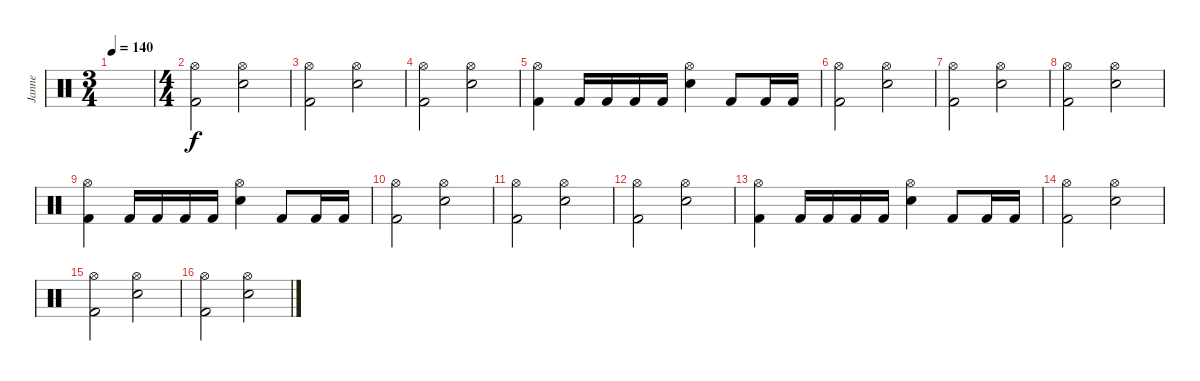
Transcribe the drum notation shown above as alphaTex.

\track ("Janne" "Janne") {instrument percussion}
\staff {score}
\articulation defaults
\ts (3 4)
\tempo 140
\clef neutral
\ks c
|
\ts (4 4)
("Hi-Hat (open)" "Kick (hit) 2").2 ("Hi-Hat (open)" "Electric Snare (hit)").2 |
("Hi-Hat (open)" "Kick (hit) 2").2 ("Hi-Hat (open)" "Electric Snare (hit)").2 |
("Hi-Hat (open)" "Kick (hit) 2").2 ("Hi-Hat (open)" "Electric Snare (hit)").2 |
("Hi-Hat (open)" "Kick (hit) 2").4 "Kick (hit) 2".16 "Kick (hit) 2".16 "Kick (hit) 2".16 "Kick (hit) 2".16 ("Hi-Hat (open)" "Electric Snare (hit)").4 "Kick (hit) 2".8 "Kick (hit) 2".16 "Kick (hit) 2".16 |
("Hi-Hat (open)" "Kick (hit) 2").2 ("Hi-Hat (open)" "Electric Snare (hit)").2 |
("Hi-Hat (open)" "Kick (hit) 2").2 ("Hi-Hat (open)" "Electric Snare (hit)").2 |
("Hi-Hat (open)" "Kick (hit) 2").2 ("Hi-Hat (open)" "Electric Snare (hit)").2 |
("Hi-Hat (open)" "Kick (hit) 2").4 "Kick (hit) 2".16 "Kick (hit) 2".16 "Kick (hit) 2".16 "Kick (hit) 2".16 ("Hi-Hat (open)" "Electric Snare (hit)").4 "Kick (hit) 2".8 "Kick (hit) 2".16 "Kick (hit) 2".16 |
("Hi-Hat (open)" "Kick (hit) 2").2 ("Hi-Hat (open)" "Electric Snare (hit)").2 |
("Hi-Hat (open)" "Kick (hit) 2").2 ("Hi-Hat (open)" "Electric Snare (hit)").2 |
("Hi-Hat (open)" "Kick (hit) 2").2 ("Hi-Hat (open)" "Electric Snare (hit)").2 |
("Hi-Hat (open)" "Kick (hit) 2").4 "Kick (hit) 2".16 "Kick (hit) 2".16 "Kick (hit) 2".16 "Kick (hit) 2".16 ("Hi-Hat (open)" "Electric Snare (hit)").4 "Kick (hit) 2".8 "Kick (hit) 2".16 "Kick (hit) 2".16 |
("Hi-Hat (open)" "Kick (hit) 2").2 ("Hi-Hat (open)" "Electric Snare (hit)").2 |
("Hi-Hat (open)" "Kick (hit) 2").2 ("Hi-Hat (open)" "Electric Snare (hit)").2 |
("Hi-Hat (open)" "Kick (hit) 2").2 ("Hi-Hat (open)" "Electric Snare (hit)").2
